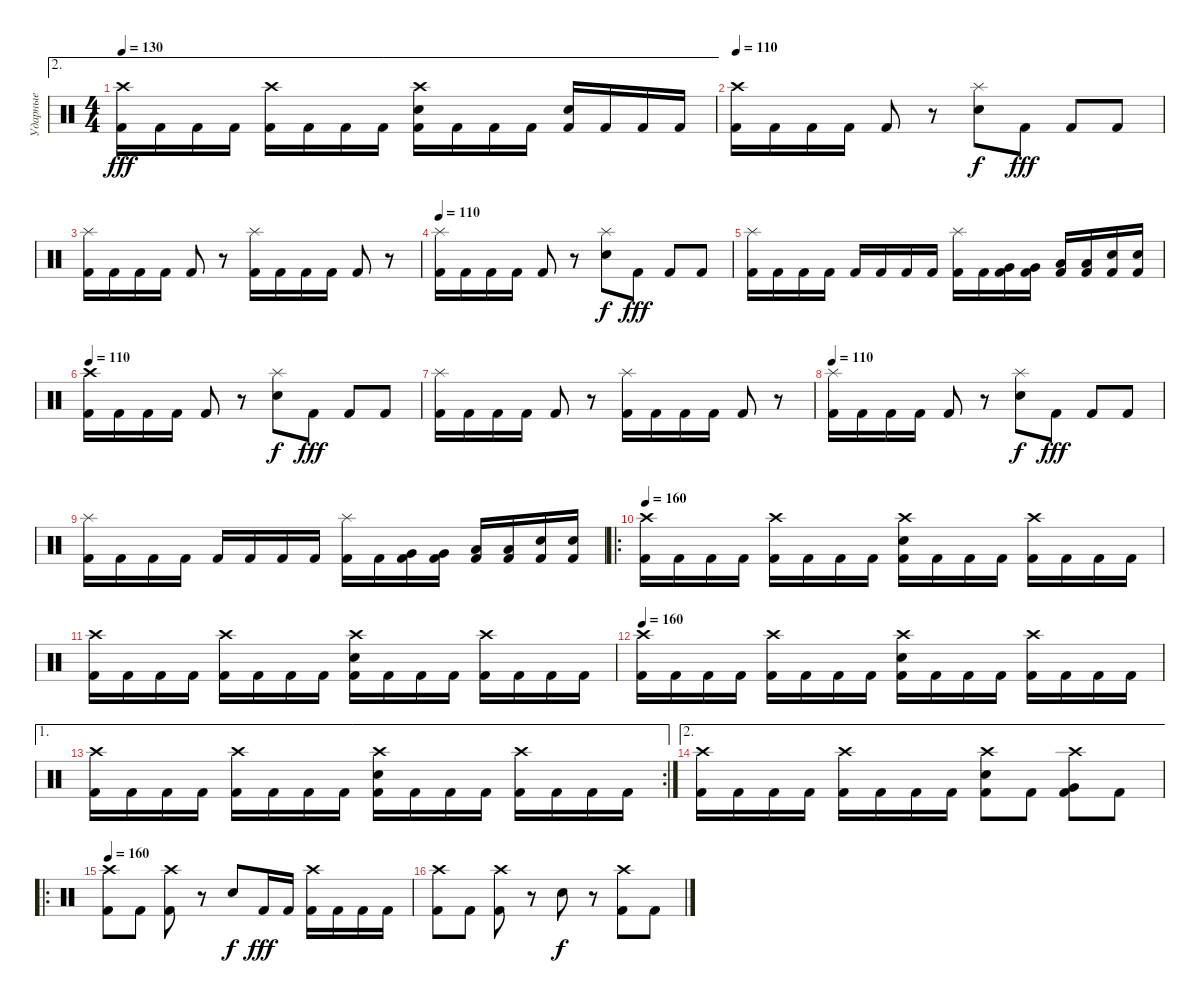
\track ("Ударные" "Ударные") {instrument percussion}
\staff {score}
\articulation defaults
\ae 2
\ts (4 4)
\tempo 130
\clef neutral
\ks c
("Crash high (hit)" "Kick (hit) 2").16{dy fff} "Kick (hit) 2".16 "Kick (hit) 2".16 "Kick (hit) 2".16 ("Crash high (hit)" "Kick (hit) 2").16 "Kick (hit) 2".16 "Kick (hit) 2".16 "Kick (hit) 2".16 ("Crash high (hit)" "Snare (hit) 2" "Kick (hit) 2").16 "Kick (hit) 2".16 "Kick (hit) 2".16 "Kick (hit) 2".16 ("Snare (hit) 2" "Kick (hit) 2").16 "Kick (hit) 2".16 "Kick (hit) 2".16 "Kick (hit) 2".16 |
\tempo 110
("Crash high (hit)" "Kick (hit) 2").16 "Kick (hit) 2".16 "Kick (hit) 2".16 "Kick (hit) 2".16 "Kick (hit) 2".8 r.8 ("Splash (hit)" "Snare (hit) 2").8{dy f} "Kick (hit) 2".8{dy fff} "Kick (hit) 2".8 "Kick (hit) 2".8 |
("Splash (hit)" "Kick (hit) 2").16 "Kick (hit) 2".16 "Kick (hit) 2".16 "Kick (hit) 2".16 "Kick (hit) 2".8 r.8 ("Splash (hit)" "Kick (hit) 2").16 "Kick (hit) 2".16 "Kick (hit) 2".16 "Kick (hit) 2".16 "Kick (hit) 2".8 r.8 |
\tempo 110
("Splash (hit)" "Kick (hit) 2").16 "Kick (hit) 2".16 "Kick (hit) 2".16 "Kick (hit) 2".16 "Kick (hit) 2".8 r.8 ("Splash (hit)" "Snare (hit) 2").8{dy f} "Kick (hit) 2".8{dy fff} "Kick (hit) 2".8 "Kick (hit) 2".8 |
("Splash (hit)" "Kick (hit) 2").16 "Kick (hit) 2".16 "Kick (hit) 2".16 "Kick (hit) 2".16 "Kick (hit) 2".16 "Kick (hit) 2".16 "Kick (hit) 2".16 "Kick (hit) 2".16 ("Splash (hit)" "Kick (hit) 2").16 "Kick (hit) 2".16 ("Very Low Tom (hit)" "Kick (hit) 2").16 ("Very Low Tom (hit)" "Kick (hit) 2").16 ("Low Floor Tom (hit)" "Kick (hit) 2").16 ("Low Floor Tom (hit)" "Kick (hit) 2").16 ("Snare (hit) 2" "Kick (hit) 2").16 ("Snare (hit) 2" "Kick (hit) 2").16 |
\tempo 110
("Crash high (hit)" "Kick (hit) 2").16 "Kick (hit) 2".16 "Kick (hit) 2".16 "Kick (hit) 2".16 "Kick (hit) 2".8 r.8 ("Splash (hit)" "Snare (hit) 2").8{dy f} "Kick (hit) 2".8{dy fff} "Kick (hit) 2".8 "Kick (hit) 2".8 |
("Splash (hit)" "Kick (hit) 2").16 "Kick (hit) 2".16 "Kick (hit) 2".16 "Kick (hit) 2".16 "Kick (hit) 2".8 r.8 ("Splash (hit)" "Kick (hit) 2").16 "Kick (hit) 2".16 "Kick (hit) 2".16 "Kick (hit) 2".16 "Kick (hit) 2".8 r.8 |
\tempo 110
("Splash (hit)" "Kick (hit) 2").16 "Kick (hit) 2".16 "Kick (hit) 2".16 "Kick (hit) 2".16 "Kick (hit) 2".8 r.8 ("Splash (hit)" "Snare (hit) 2").8{dy f} "Kick (hit) 2".8{dy fff} "Kick (hit) 2".8 "Kick (hit) 2".8 |
("Splash (hit)" "Kick (hit) 2").16 "Kick (hit) 2".16 "Kick (hit) 2".16 "Kick (hit) 2".16 "Kick (hit) 2".16 "Kick (hit) 2".16 "Kick (hit) 2".16 "Kick (hit) 2".16 ("Splash (hit)" "Kick (hit) 2").16 "Kick (hit) 2".16 ("Very Low Tom (hit)" "Kick (hit) 2").16 ("Very Low Tom (hit)" "Kick (hit) 2").16 ("Low Floor Tom (hit)" "Kick (hit) 2").16 ("Low Floor Tom (hit)" "Kick (hit) 2").16 ("Snare (hit) 2" "Kick (hit) 2").16 ("Snare (hit) 2" "Kick (hit) 2").16 |
\ro
\tempo 160
("Crash high (hit)" "Kick (hit) 2").16 "Kick (hit) 2".16 "Kick (hit) 2".16 "Kick (hit) 2".16 ("Crash high (hit)" "Kick (hit) 2").16 "Kick (hit) 2".16 "Kick (hit) 2".16 "Kick (hit) 2".16 ("Crash high (hit)" "Snare (hit) 2" "Kick (hit) 2").16 "Kick (hit) 2".16 "Kick (hit) 2".16 "Kick (hit) 2".16 ("Crash high (hit)" "Kick (hit) 2").16 "Kick (hit) 2".16 "Kick (hit) 2".16 "Kick (hit) 2".16 |
("Crash high (hit)" "Kick (hit) 2").16 "Kick (hit) 2".16 "Kick (hit) 2".16 "Kick (hit) 2".16 ("Crash high (hit)" "Kick (hit) 2").16 "Kick (hit) 2".16 "Kick (hit) 2".16 "Kick (hit) 2".16 ("Crash high (hit)" "Snare (hit) 2" "Kick (hit) 2").16 "Kick (hit) 2".16 "Kick (hit) 2".16 "Kick (hit) 2".16 ("Crash high (hit)" "Kick (hit) 2").16 "Kick (hit) 2".16 "Kick (hit) 2".16 "Kick (hit) 2".16 |
\tempo 160
("Crash high (hit)" "Kick (hit) 2").16 "Kick (hit) 2".16 "Kick (hit) 2".16 "Kick (hit) 2".16 ("Crash high (hit)" "Kick (hit) 2").16 "Kick (hit) 2".16 "Kick (hit) 2".16 "Kick (hit) 2".16 ("Crash high (hit)" "Snare (hit) 2" "Kick (hit) 2").16 "Kick (hit) 2".16 "Kick (hit) 2".16 "Kick (hit) 2".16 ("Crash high (hit)" "Kick (hit) 2").16 "Kick (hit) 2".16 "Kick (hit) 2".16 "Kick (hit) 2".16 |
\ae 1
\rc 2
("Crash high (hit)" "Kick (hit) 2").16 "Kick (hit) 2".16 "Kick (hit) 2".16 "Kick (hit) 2".16 ("Crash high (hit)" "Kick (hit) 2").16 "Kick (hit) 2".16 "Kick (hit) 2".16 "Kick (hit) 2".16 ("Crash high (hit)" "Snare (hit) 2" "Kick (hit) 2").16 "Kick (hit) 2".16 "Kick (hit) 2".16 "Kick (hit) 2".16 ("Crash high (hit)" "Kick (hit) 2").16 "Kick (hit) 2".16 "Kick (hit) 2".16 "Kick (hit) 2".16 |
\ae 2
("Crash high (hit)" "Kick (hit) 2").16 "Kick (hit) 2".16 "Kick (hit) 2".16 "Kick (hit) 2".16 ("Crash high (hit)" "Kick (hit) 2").16 "Kick (hit) 2".16 "Kick (hit) 2".16 "Kick (hit) 2".16 ("Crash high (hit)" "Snare (hit) 2" "Kick (hit) 2").8 "Kick (hit) 2".8 ("Crash high (hit)" "Very Low Tom (hit)" "Kick (hit) 2").8 "Kick (hit) 2".8 |
\ro
\tempo 160
("Crash high (hit)" "Kick (hit) 2").8 "Kick (hit) 2".8 ("Crash high (hit)" "Kick (hit) 2").8 r.8 "Snare (hit) 2".8{dy f} "Kick (hit) 2".16{dy fff} "Kick (hit) 2".16 ("Crash high (hit)" "Kick (hit) 2").16 "Kick (hit) 2".16 "Kick (hit) 2".16 "Kick (hit) 2".16 |
("Crash high (hit)" "Kick (hit) 2").8 "Kick (hit) 2".8 ("Crash high (hit)" "Kick (hit) 2").8 r.8 "Snare (hit) 2".8{dy f} r.8 ("Crash high (hit)" "Kick (hit) 2").8 "Kick (hit) 2".8
